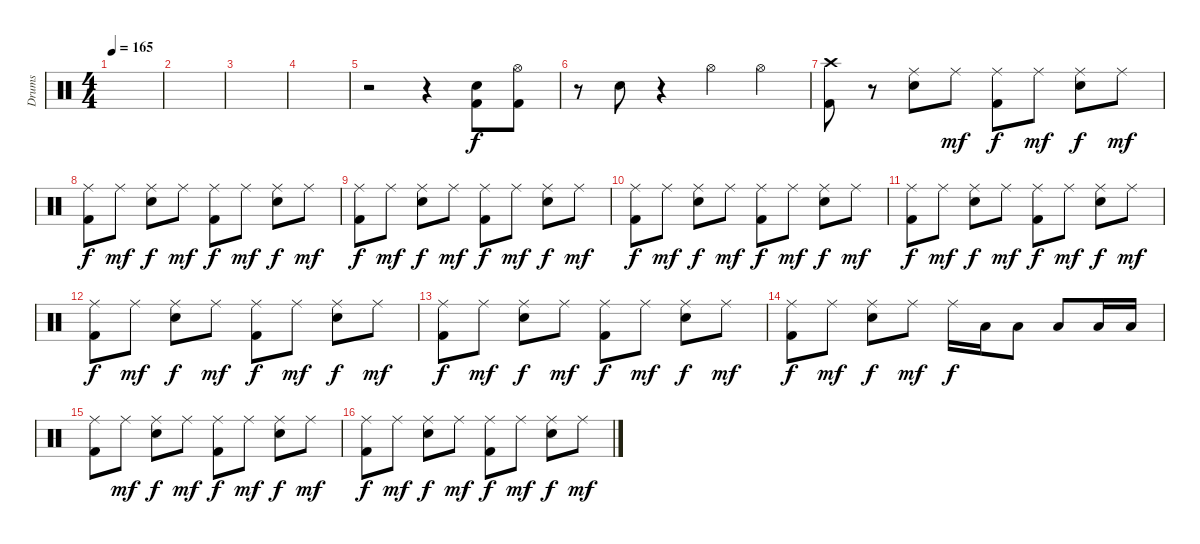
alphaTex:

\track ("Drums" "Drums") {instrument percussion}
\staff {score}
\articulation defaults
\ts (4 4)
\tempo 165
\clef neutral
\ks c
|
|
|
|
r.2 r.4 ("Electric Snare (hit)" "Kick (hit) 2").8 ("Hi-Hat (open)" "Kick (hit) 2").8 |
r.8 "Electric Snare (hit)".8 r.4 "Hi-Hat (open)".4 "Hi-Hat (open)".4 |
("Crash high (hit)" "Kick (hit) 2").8 r.8 ("Ride (middle)" "Electric Snare (hit)").8 "Ride (middle)".8{dy mf} ("Ride (middle)" "Kick (hit) 2").8{dy f} "Ride (middle)".8{dy mf} ("Ride (middle)" "Electric Snare (hit)").8{dy f} "Ride (middle)".8{dy mf} |
("Ride (middle)" "Kick (hit) 2").8{dy f} "Ride (middle)".8{dy mf} ("Ride (middle)" "Electric Snare (hit)").8{dy f} "Ride (middle)".8{dy mf} ("Ride (middle)" "Kick (hit) 2").8{dy f} "Ride (middle)".8{dy mf} ("Ride (middle)" "Electric Snare (hit)").8{dy f} "Ride (middle)".8{dy mf} |
("Ride (middle)" "Kick (hit) 2").8{dy f} "Ride (middle)".8{dy mf} ("Ride (middle)" "Electric Snare (hit)").8{dy f} "Ride (middle)".8{dy mf} ("Ride (middle)" "Kick (hit) 2").8{dy f} "Ride (middle)".8{dy mf} ("Ride (middle)" "Electric Snare (hit)").8{dy f} "Ride (middle)".8{dy mf} |
("Ride (middle)" "Kick (hit) 2").8{dy f} "Ride (middle)".8{dy mf} ("Ride (middle)" "Electric Snare (hit)").8{dy f} "Ride (middle)".8{dy mf} ("Ride (middle)" "Kick (hit) 2").8{dy f} "Ride (middle)".8{dy mf} ("Ride (middle)" "Electric Snare (hit)").8{dy f} "Ride (middle)".8{dy mf} |
("Ride (middle)" "Kick (hit) 2").8{dy f} "Ride (middle)".8{dy mf} ("Ride (middle)" "Electric Snare (hit)").8{dy f} "Ride (middle)".8{dy mf} ("Ride (middle)" "Kick (hit) 2").8{dy f} "Ride (middle)".8{dy mf} ("Ride (middle)" "Electric Snare (hit)").8{dy f} "Ride (middle)".8{dy mf} |
("Ride (middle)" "Kick (hit) 2").8{dy f} "Ride (middle)".8{dy mf} ("Ride (middle)" "Electric Snare (hit)").8{dy f} "Ride (middle)".8{dy mf} ("Ride (middle)" "Kick (hit) 2").8{dy f} "Ride (middle)".8{dy mf} ("Ride (middle)" "Electric Snare (hit)").8{dy f} "Ride (middle)".8{dy mf} |
("Ride (middle)" "Kick (hit) 2").8{dy f} "Ride (middle)".8{dy mf} ("Ride (middle)" "Electric Snare (hit)").8{dy f} "Ride (middle)".8{dy mf} ("Ride (middle)" "Kick (hit) 2").8{dy f} "Ride (middle)".8{dy mf} ("Ride (middle)" "Electric Snare (hit)").8{dy f} "Ride (middle)".8{dy mf} |
("Ride (middle)" "Kick (hit) 2").8{dy f} "Ride (middle)".8{dy mf} ("Ride (middle)" "Electric Snare (hit)").8{dy f} "Ride (middle)".8{dy mf} "Ride (middle)".16{dy f} "Low Floor Tom (hit)".16 "Low Floor Tom (hit)".8 "Low Floor Tom (hit)".8 "Low Floor Tom (hit)".16 "Low Floor Tom (hit)".16 |
("Ride (middle)" "Kick (hit) 2").8 "Ride (middle)".8{dy mf} ("Ride (middle)" "Electric Snare (hit)").8{dy f} "Ride (middle)".8{dy mf} ("Ride (middle)" "Kick (hit) 2").8{dy f} "Ride (middle)".8{dy mf} ("Ride (middle)" "Electric Snare (hit)").8{dy f} "Ride (middle)".8{dy mf} |
("Ride (middle)" "Kick (hit) 2").8{dy f} "Ride (middle)".8{dy mf} ("Ride (middle)" "Electric Snare (hit)").8{dy f} "Ride (middle)".8{dy mf} ("Ride (middle)" "Kick (hit) 2").8{dy f} "Ride (middle)".8{dy mf} ("Ride (middle)" "Electric Snare (hit)").8{dy f} "Ride (middle)".8{dy mf}
